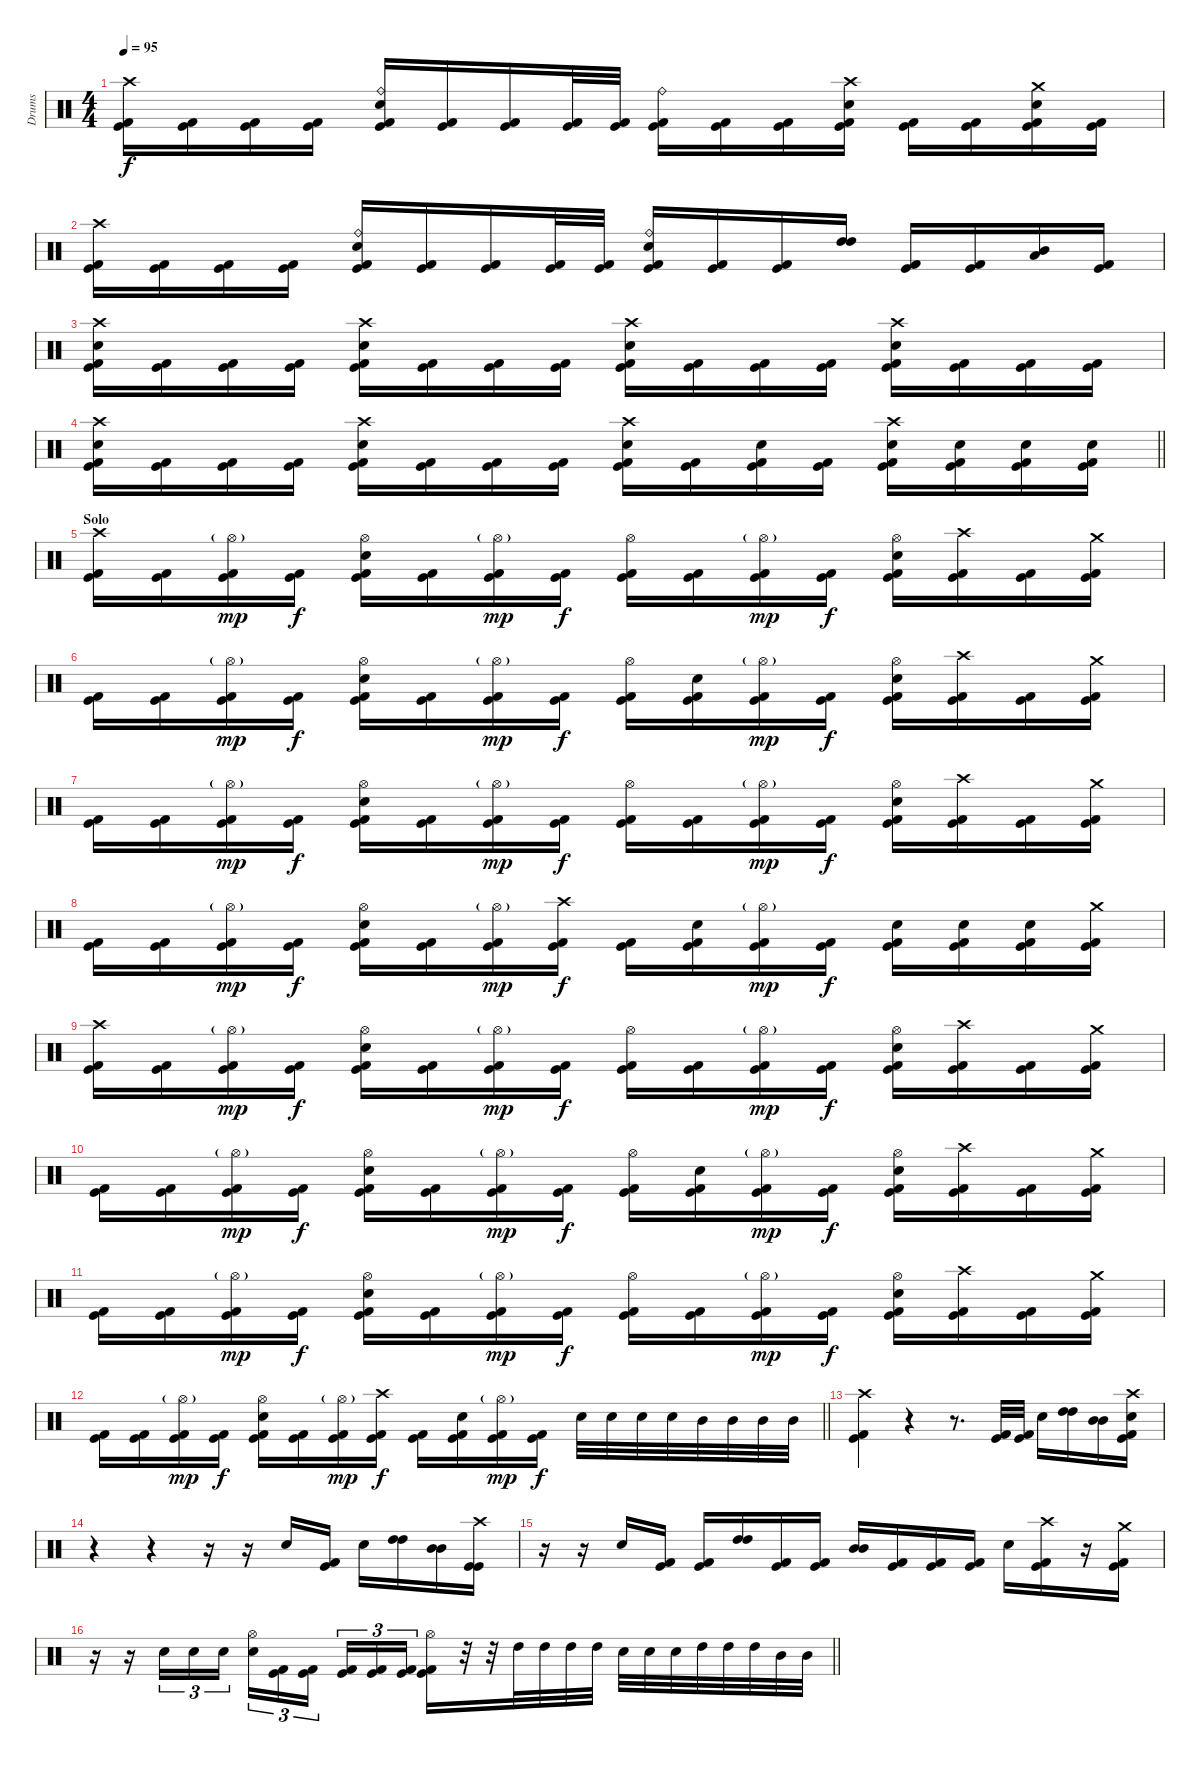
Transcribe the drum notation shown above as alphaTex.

\track ("Drums" "Drums") {instrument percussion}
\staff {score}
\articulation defaults
\ts (4 4)
\tempo 95
\clef neutral
\ks c
("Crash high (hit)" "Kick (hit) 2" "Kick (hit)").16{dy f} ("Kick (hit) 2" "Kick (hit)").16 ("Kick (hit) 2" "Kick (hit)").16 ("Kick (hit) 2" "Kick (hit)").16 ("Ride (bell)" "Snare (hit) 2" "Kick (hit) 2" "Kick (hit)").16 ("Kick (hit) 2" "Kick (hit)").16 ("Kick (hit) 2" "Kick (hit)").16 ("Kick (hit) 2" "Kick (hit)").32 ("Kick (hit) 2" "Kick (hit)").32 ("Ride (bell)" "Kick (hit) 2" "Kick (hit)").16 ("Kick (hit) 2" "Kick (hit)").16 ("Kick (hit) 2" "Kick (hit)").16 ("Crash high (hit)" "Snare (hit) 2" "Kick (hit) 2" "Kick (hit)").16 ("Kick (hit) 2" "Kick (hit)").16 ("Kick (hit) 2" "Kick (hit)").16 ("Crash medium (hit)" "Snare (hit) 2" "Kick (hit) 2" "Kick (hit)").16 ("Kick (hit) 2" "Kick (hit)").16 |
("Crash high (hit)" "Kick (hit) 2" "Kick (hit)").16 ("Kick (hit) 2" "Kick (hit)").16 ("Kick (hit) 2" "Kick (hit)").16 ("Kick (hit) 2" "Kick (hit)").16 ("Ride (bell)" "Snare (hit) 2" "Kick (hit) 2" "Kick (hit)").16 ("Kick (hit) 2" "Kick (hit)").16 ("Kick (hit) 2" "Kick (hit)").16 ("Kick (hit) 2" "Kick (hit)").32 ("Kick (hit) 2" "Kick (hit)").32 ("Ride (bell)" "Snare (hit) 2" "Kick (hit) 2" "Kick (hit)").16 ("Kick (hit) 2" "Kick (hit)").16 ("Kick (hit) 2" "Kick (hit)").16 ("High Tom (hit)" "High Tom (hit)").16 ("Kick (hit) 2" "Kick (hit)").16 ("Kick (hit) 2" "Kick (hit)").16 ("Low Tom (hit)" "Mid Tom (hit)").16 ("Kick (hit) 2" "Kick (hit)").16 |
("Crash high (hit)" "Snare (hit) 2" "Kick (hit) 2" "Kick (hit)").16 ("Kick (hit) 2" "Kick (hit)").16 ("Kick (hit) 2" "Kick (hit)").16 ("Kick (hit) 2" "Kick (hit)").16 ("Crash high (hit)" "Snare (hit) 2" "Kick (hit) 2" "Kick (hit)").16 ("Kick (hit) 2" "Kick (hit)").16 ("Kick (hit) 2" "Kick (hit)").16 ("Kick (hit) 2" "Kick (hit)").16 ("Crash high (hit)" "Snare (hit) 2" "Kick (hit) 2" "Kick (hit)").16 ("Kick (hit) 2" "Kick (hit)").16 ("Kick (hit) 2" "Kick (hit)").16 ("Kick (hit) 2" "Kick (hit)").16 ("Crash high (hit)" "Snare (hit) 2" "Kick (hit) 2" "Kick (hit)").16 ("Kick (hit) 2" "Kick (hit)").16 ("Kick (hit) 2" "Kick (hit)").16 ("Kick (hit) 2" "Kick (hit)").16 |
\barLineRight lightlight
("Crash high (hit)" "Snare (hit) 2" "Kick (hit) 2" "Kick (hit)").16 ("Kick (hit) 2" "Kick (hit)").16 ("Kick (hit) 2" "Kick (hit)").16 ("Kick (hit) 2" "Kick (hit)").16 ("Crash high (hit)" "Snare (hit) 2" "Kick (hit) 2" "Kick (hit)").16 ("Kick (hit) 2" "Kick (hit)").16 ("Kick (hit) 2" "Kick (hit)").16 ("Kick (hit) 2" "Kick (hit)").16 ("Crash high (hit)" "Snare (hit) 2" "Kick (hit) 2" "Kick (hit)").16 ("Kick (hit) 2" "Kick (hit)").16 ("Snare (hit) 2" "Kick (hit) 2" "Kick (hit)").16 ("Kick (hit) 2" "Kick (hit)").16 ("Crash high (hit)" "Snare (hit) 2" "Kick (hit) 2" "Kick (hit)").16 ("Snare (hit) 2" "Kick (hit) 2" "Kick (hit)").16 ("Snare (hit) 2" "Kick (hit) 2" "Kick (hit)").16 ("Snare (hit) 2" "Kick (hit) 2" "Kick (hit)").16 |
\section ("" "Solo")
("Crash high (hit)" "Kick (hit) 2" "Kick (hit)").16 ("Kick (hit) 2" "Kick (hit)").16 ("Hi-Hat (open)"{g} "Kick (hit) 2" "Kick (hit)").16{dy mp} ("Kick (hit) 2" "Kick (hit)").16{dy f} ("Hi-Hat (open)" "Snare (hit) 2" "Kick (hit) 2" "Kick (hit)").16 ("Kick (hit) 2" "Kick (hit)").16 ("Hi-Hat (open)"{g} "Kick (hit) 2" "Kick (hit)").16{dy mp} ("Kick (hit) 2" "Kick (hit)").16{dy f} ("Hi-Hat (open)" "Kick (hit) 2" "Kick (hit)").16 ("Kick (hit) 2" "Kick (hit)").16 ("Hi-Hat (open)"{g} "Kick (hit) 2" "Kick (hit)").16{dy mp} ("Kick (hit) 2" "Kick (hit)").16{dy f} ("Hi-Hat (open)" "Snare (hit) 2" "Kick (hit) 2" "Kick (hit)").16 ("Crash high (hit)" "Kick (hit) 2" "Kick (hit)").16 ("Kick (hit) 2" "Kick (hit)").16 ("Crash medium (hit)" "Kick (hit) 2" "Kick (hit)").16 |
("Kick (hit) 2" "Kick (hit)").16 ("Kick (hit) 2" "Kick (hit)").16 ("Hi-Hat (open)"{g} "Kick (hit) 2" "Kick (hit)").16{dy mp} ("Kick (hit) 2" "Kick (hit)").16{dy f} ("Hi-Hat (open)" "Snare (hit) 2" "Kick (hit) 2" "Kick (hit)").16 ("Kick (hit) 2" "Kick (hit)").16 ("Hi-Hat (open)"{g} "Kick (hit) 2" "Kick (hit)").16{dy mp} ("Kick (hit) 2" "Kick (hit)").16{dy f} ("Hi-Hat (open)" "Kick (hit) 2" "Kick (hit)").16 ("Snare (hit) 2" "Kick (hit) 2" "Kick (hit)").16 ("Hi-Hat (open)"{g} "Kick (hit) 2" "Kick (hit)").16{dy mp} ("Kick (hit) 2" "Kick (hit)").16{dy f} ("Hi-Hat (open)" "Snare (hit) 2" "Kick (hit) 2" "Kick (hit)").16 ("Crash high (hit)" "Kick (hit) 2" "Kick (hit)").16 ("Kick (hit) 2" "Kick (hit)").16 ("Crash medium (hit)" "Kick (hit) 2" "Kick (hit)").16 |
("Kick (hit) 2" "Kick (hit)").16 ("Kick (hit) 2" "Kick (hit)").16 ("Hi-Hat (open)"{g} "Kick (hit) 2" "Kick (hit)").16{dy mp} ("Kick (hit) 2" "Kick (hit)").16{dy f} ("Hi-Hat (open)" "Snare (hit) 2" "Kick (hit) 2" "Kick (hit)").16 ("Kick (hit) 2" "Kick (hit)").16 ("Hi-Hat (open)"{g} "Kick (hit) 2" "Kick (hit)").16{dy mp} ("Kick (hit) 2" "Kick (hit)").16{dy f} ("Hi-Hat (open)" "Kick (hit) 2" "Kick (hit)").16 ("Kick (hit) 2" "Kick (hit)").16 ("Hi-Hat (open)"{g} "Kick (hit) 2" "Kick (hit)").16{dy mp} ("Kick (hit) 2" "Kick (hit)").16{dy f} ("Hi-Hat (open)" "Snare (hit) 2" "Kick (hit) 2" "Kick (hit)").16 ("Crash high (hit)" "Kick (hit) 2" "Kick (hit)").16 ("Kick (hit) 2" "Kick (hit)").16 ("Crash medium (hit)" "Kick (hit) 2" "Kick (hit)").16 |
("Kick (hit) 2" "Kick (hit)").16 ("Kick (hit) 2" "Kick (hit)").16 ("Hi-Hat (open)"{g} "Kick (hit) 2" "Kick (hit)").16{dy mp} ("Kick (hit) 2" "Kick (hit)").16{dy f} ("Hi-Hat (open)" "Snare (hit) 2" "Kick (hit) 2" "Kick (hit)").16 ("Kick (hit) 2" "Kick (hit)").16 ("Hi-Hat (open)"{g} "Kick (hit) 2" "Kick (hit)").16{dy mp} ("Crash high (hit)" "Kick (hit) 2" "Kick (hit)").16{dy f} ("Kick (hit) 2" "Kick (hit)").16 ("Snare (hit) 2" "Kick (hit) 2" "Kick (hit)").16 ("Hi-Hat (open)"{g} "Kick (hit) 2" "Kick (hit)").16{dy mp} ("Kick (hit) 2" "Kick (hit)").16{dy f} ("Snare (hit) 2" "Kick (hit) 2" "Kick (hit)").16 ("Snare (hit) 2" "Kick (hit) 2" "Kick (hit)").16 ("Snare (hit) 2" "Kick (hit) 2" "Kick (hit)").16 ("Crash medium (hit)" "Kick (hit) 2" "Kick (hit)").16 |
("Crash high (hit)" "Kick (hit) 2" "Kick (hit)").16 ("Kick (hit) 2" "Kick (hit)").16 ("Hi-Hat (open)"{g} "Kick (hit) 2" "Kick (hit)").16{dy mp} ("Kick (hit) 2" "Kick (hit)").16{dy f} ("Hi-Hat (open)" "Snare (hit) 2" "Kick (hit) 2" "Kick (hit)").16 ("Kick (hit) 2" "Kick (hit)").16 ("Hi-Hat (open)"{g} "Kick (hit) 2" "Kick (hit)").16{dy mp} ("Kick (hit) 2" "Kick (hit)").16{dy f} ("Hi-Hat (open)" "Kick (hit) 2" "Kick (hit)").16 ("Kick (hit) 2" "Kick (hit)").16 ("Hi-Hat (open)"{g} "Kick (hit) 2" "Kick (hit)").16{dy mp} ("Kick (hit) 2" "Kick (hit)").16{dy f} ("Hi-Hat (open)" "Snare (hit) 2" "Kick (hit) 2" "Kick (hit)").16 ("Crash high (hit)" "Kick (hit) 2" "Kick (hit)").16 ("Kick (hit) 2" "Kick (hit)").16 ("Crash medium (hit)" "Kick (hit) 2" "Kick (hit)").16 |
("Kick (hit) 2" "Kick (hit)").16 ("Kick (hit) 2" "Kick (hit)").16 ("Hi-Hat (open)"{g} "Kick (hit) 2" "Kick (hit)").16{dy mp} ("Kick (hit) 2" "Kick (hit)").16{dy f} ("Hi-Hat (open)" "Snare (hit) 2" "Kick (hit) 2" "Kick (hit)").16 ("Kick (hit) 2" "Kick (hit)").16 ("Hi-Hat (open)"{g} "Kick (hit) 2" "Kick (hit)").16{dy mp} ("Kick (hit) 2" "Kick (hit)").16{dy f} ("Hi-Hat (open)" "Kick (hit) 2" "Kick (hit)").16 ("Snare (hit) 2" "Kick (hit) 2" "Kick (hit)").16 ("Hi-Hat (open)"{g} "Kick (hit) 2" "Kick (hit)").16{dy mp} ("Kick (hit) 2" "Kick (hit)").16{dy f} ("Hi-Hat (open)" "Snare (hit) 2" "Kick (hit) 2" "Kick (hit)").16 ("Crash high (hit)" "Kick (hit) 2" "Kick (hit)").16 ("Kick (hit) 2" "Kick (hit)").16 ("Crash medium (hit)" "Kick (hit) 2" "Kick (hit)").16 |
("Kick (hit) 2" "Kick (hit)").16 ("Kick (hit) 2" "Kick (hit)").16 ("Hi-Hat (open)"{g} "Kick (hit) 2" "Kick (hit)").16{dy mp} ("Kick (hit) 2" "Kick (hit)").16{dy f} ("Hi-Hat (open)" "Snare (hit) 2" "Kick (hit) 2" "Kick (hit)").16 ("Kick (hit) 2" "Kick (hit)").16 ("Hi-Hat (open)"{g} "Kick (hit) 2" "Kick (hit)").16{dy mp} ("Kick (hit) 2" "Kick (hit)").16{dy f} ("Hi-Hat (open)" "Kick (hit) 2" "Kick (hit)").16 ("Kick (hit) 2" "Kick (hit)").16 ("Hi-Hat (open)"{g} "Kick (hit) 2" "Kick (hit)").16{dy mp} ("Kick (hit) 2" "Kick (hit)").16{dy f} ("Hi-Hat (open)" "Snare (hit) 2" "Kick (hit) 2" "Kick (hit)").16 ("Crash high (hit)" "Kick (hit) 2" "Kick (hit)").16 ("Kick (hit) 2" "Kick (hit)").16 ("Crash medium (hit)" "Kick (hit) 2" "Kick (hit)").16 |
\barLineRight lightlight
("Kick (hit) 2" "Kick (hit)").16 ("Kick (hit) 2" "Kick (hit)").16 ("Hi-Hat (open)"{g} "Kick (hit) 2" "Kick (hit)").16{dy mp} ("Kick (hit) 2" "Kick (hit)").16{dy f} ("Hi-Hat (open)" "Snare (hit) 2" "Kick (hit) 2" "Kick (hit)").16 ("Kick (hit) 2" "Kick (hit)").16 ("Hi-Hat (open)"{g} "Kick (hit) 2" "Kick (hit)").16{dy mp} ("Crash high (hit)" "Kick (hit) 2" "Kick (hit)").16{dy f} ("Kick (hit) 2" "Kick (hit)").16 ("Snare (hit) 2" "Kick (hit) 2" "Kick (hit)").16 ("Hi-Hat (open)"{g} "Kick (hit) 2" "Kick (hit)").16{dy mp} ("Kick (hit) 2" "Kick (hit)").16{dy f} "Snare (hit) 2".32 "Snare (hit) 2".32 "Snare (hit) 2".32 "Snare (hit) 2".32 "Mid Tom (hit)".32 "Mid Tom (hit)".32 "Mid Tom (hit)".32 "Mid Tom (hit)".32 |
("Kick (hit)" "Kick (hit) 2" "Crash high (hit)").4 r.4 r.8{d} ("Kick (hit) 2" "Kick (hit)").32 ("Kick (hit) 2" "Kick (hit)").32 "Snare (hit) 2".16 ("High Tom (hit)" "High Tom (hit)").16 ("Mid Tom (hit)" "Mid Tom (hit)").16 ("Crash high (hit)" "Kick (hit)" "Kick (hit) 2" "Snare (hit) 2").16 |
r.4 r.4 r.16 r.16 "Snare (hit) 2".16 ("Kick (hit) 2" "Kick (hit)").16 "Snare (hit) 2".16 ("High Tom (hit)" "High Tom (hit)").16 ("Mid Tom (hit)" "Mid Tom (hit)").16 ("Crash high (hit)" "Kick (hit)" "Kick (hit)").16 |
r.16 r.16 "Snare (hit) 2".16 ("Kick (hit) 2" "Kick (hit)").16 ("Kick (hit) 2" "Kick (hit)").16 ("High Tom (hit)" "High Tom (hit)").16 ("Kick (hit) 2" "Kick (hit)").16 ("Kick (hit) 2" "Kick (hit)").16 ("Mid Tom (hit)" "Mid Tom (hit)").16 ("Kick (hit) 2" "Kick (hit)").16 ("Kick (hit) 2" "Kick (hit)").16 ("Kick (hit) 2" "Kick (hit)").16 "Snare (hit) 2".16 ("Kick (hit)" "Kick (hit) 2" "Crash high (hit)").16 r.16 ("Kick (hit) 2" "Kick (hit)" "Crash medium (hit)").16 |
\barLineRight lightlight
r.16 r.16 "Snare (hit) 2".16{tu (3 2)} "Snare (hit) 2".16{tu (3 2)} "Snare (hit) 2".16{tu (3 2)} ("Hi-Hat (open)" "Snare (hit) 2").16{tu (3 2)} ("Kick (hit) 2" "Kick (hit)").16{tu (3 2)} ("Kick (hit) 2" "Kick (hit)").16{tu (3 2) beam splitsecondary} ("Kick (hit) 2" "Kick (hit)").16{tu (3 2)} ("Kick (hit) 2" "Kick (hit)").16{tu (3 2)} ("Kick (hit) 2" "Kick (hit)").16{tu (3 2)} ("Hi-Hat (open)" "Kick (hit) 2" "Kick (hit)").16 r.32 r.32 "High Tom (hit)".32 "High Tom (hit)".32 "High Tom (hit)".32 "High Tom (hit)".32 "Snare (hit) 2".32 "Snare (hit) 2".32 "Snare (hit) 2".32 "High Tom (hit)".32 "High Tom (hit)".32 "High Tom (hit)".32 "Mid Tom (hit)".32 "Mid Tom (hit)".32
